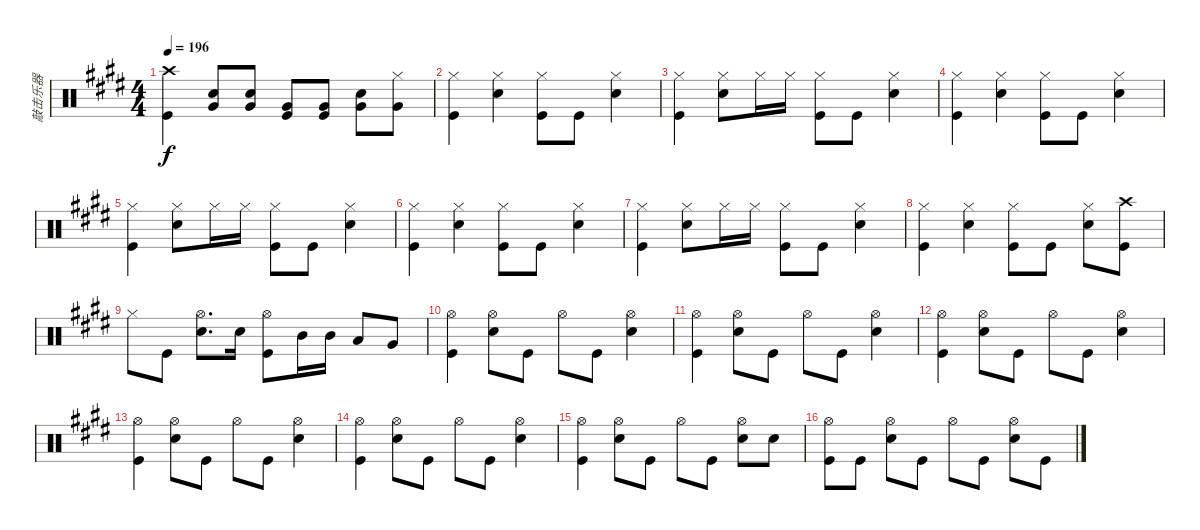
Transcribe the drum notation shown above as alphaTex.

\track ("敲击乐器" "敲击乐器") {instrument percussion}
\staff {score}
\articulation defaults
\ts (4 4)
\tempo 196
\clef neutral
\ks c#minor
("Crash high (hit)" "Kick (hit)").4{dy f} ("Snare (hit) 2" "Very Low Tom (hit)").8 ("Snare (hit) 2" "Very Low Tom (hit)").8 ("Very Low Tom (hit)" "Kick (hit)").8 ("Very Low Tom (hit)" "Kick (hit)").8 ("Snare (hit) 2" "Very Low Tom (hit)").8 ("Hi-Hat (closed)" "Very Low Tom (hit)").8 |
\ks e
("Hi-Hat (closed)" "Kick (hit)").4 ("Hi-Hat (closed)" "Snare (hit) 2").4 ("Hi-Hat (closed)" "Kick (hit)").8 "Kick (hit)".8 ("Hi-Hat (closed)" "Snare (hit) 2").4 |
("Hi-Hat (closed)" "Kick (hit)").4 ("Hi-Hat (closed)" "Snare (hit) 2").8 "Hi-Hat (closed)".16 "Hi-Hat (closed)".16 ("Hi-Hat (closed)" "Kick (hit)").8 "Kick (hit)".8 ("Hi-Hat (closed)" "Snare (hit) 2").4 |
("Hi-Hat (closed)" "Kick (hit)").4 ("Hi-Hat (closed)" "Snare (hit) 2").4 ("Hi-Hat (closed)" "Kick (hit)").8 "Kick (hit)".8 ("Hi-Hat (closed)" "Snare (hit) 2").4 |
("Hi-Hat (closed)" "Kick (hit)").4 ("Hi-Hat (closed)" "Snare (hit) 2").8 "Hi-Hat (closed)".16 "Hi-Hat (closed)".16 ("Hi-Hat (closed)" "Kick (hit)").8 "Kick (hit)".8 ("Hi-Hat (closed)" "Snare (hit) 2").4 |
("Hi-Hat (closed)" "Kick (hit)").4 ("Hi-Hat (closed)" "Snare (hit) 2").4 ("Hi-Hat (closed)" "Kick (hit)").8 "Kick (hit)".8 ("Hi-Hat (closed)" "Snare (hit) 2").4 |
("Hi-Hat (closed)" "Kick (hit)").4 ("Hi-Hat (closed)" "Snare (hit) 2").8 "Hi-Hat (closed)".16 "Hi-Hat (closed)".16 ("Hi-Hat (closed)" "Kick (hit)").8 "Kick (hit)".8 ("Hi-Hat (closed)" "Snare (hit) 2").4 |
("Hi-Hat (closed)" "Kick (hit)").4 ("Hi-Hat (closed)" "Snare (hit) 2").4 ("Hi-Hat (closed)" "Kick (hit)").8 "Kick (hit)".8 ("Hi-Hat (closed)" "Snare (hit) 2").8 ("Crash high (hit)" "Kick (hit)").8 |
"Hi-Hat (closed)".8 "Kick (hit)".8 ("Hi-Hat (open)" "Snare (hit) 2").8{d} "Snare (hit) 2".16 ("Hi-Hat (open)" "Kick (hit)").8 "Mid Tom (hit)".16 "Mid Tom (hit)".16 "Low Tom (hit)".8 "Very Low Tom (hit)".8 |
\ks c#minor
("Hi-Hat (open)" "Kick (hit)").4 ("Hi-Hat (open)" "Snare (hit) 2").8 "Kick (hit)".8 "Hi-Hat (open)".8 "Kick (hit)".8 ("Hi-Hat (open)" "Snare (hit) 2").4 |
\ks e
("Hi-Hat (open)" "Kick (hit)").4 ("Hi-Hat (open)" "Snare (hit) 2").8 "Kick (hit)".8 "Hi-Hat (open)".8 "Kick (hit)".8 ("Hi-Hat (open)" "Snare (hit) 2").4 |
\ks c#minor
("Hi-Hat (open)" "Kick (hit)").4 ("Hi-Hat (open)" "Snare (hit) 2").8 "Kick (hit)".8 "Hi-Hat (open)".8 "Kick (hit)".8 ("Hi-Hat (open)" "Snare (hit) 2").4 |
("Hi-Hat (open)" "Kick (hit)").4 ("Hi-Hat (open)" "Snare (hit) 2").8 "Kick (hit)".8 "Hi-Hat (open)".8 "Kick (hit)".8 ("Hi-Hat (open)" "Snare (hit) 2").4 |
\ks e
("Hi-Hat (open)" "Kick (hit)").4 ("Hi-Hat (open)" "Snare (hit) 2").8 "Kick (hit)".8 "Hi-Hat (open)".8 "Kick (hit)".8 ("Hi-Hat (open)" "Snare (hit) 2").4 |
\ks c#minor
("Hi-Hat (open)" "Kick (hit)").4 ("Hi-Hat (open)" "Snare (hit) 2").8 "Kick (hit)".8 "Hi-Hat (open)".8 "Kick (hit)".8 ("Hi-Hat (open)" "Snare (hit) 2").8 "Snare (hit) 2".8 |
("Hi-Hat (open)" "Kick (hit)").8 "Kick (hit)".8 ("Hi-Hat (open)" "Snare (hit) 2").8 "Kick (hit)".8 "Hi-Hat (open)".8 "Kick (hit)".8 ("Hi-Hat (open)" "Snare (hit) 2").8 "Kick (hit)".8
